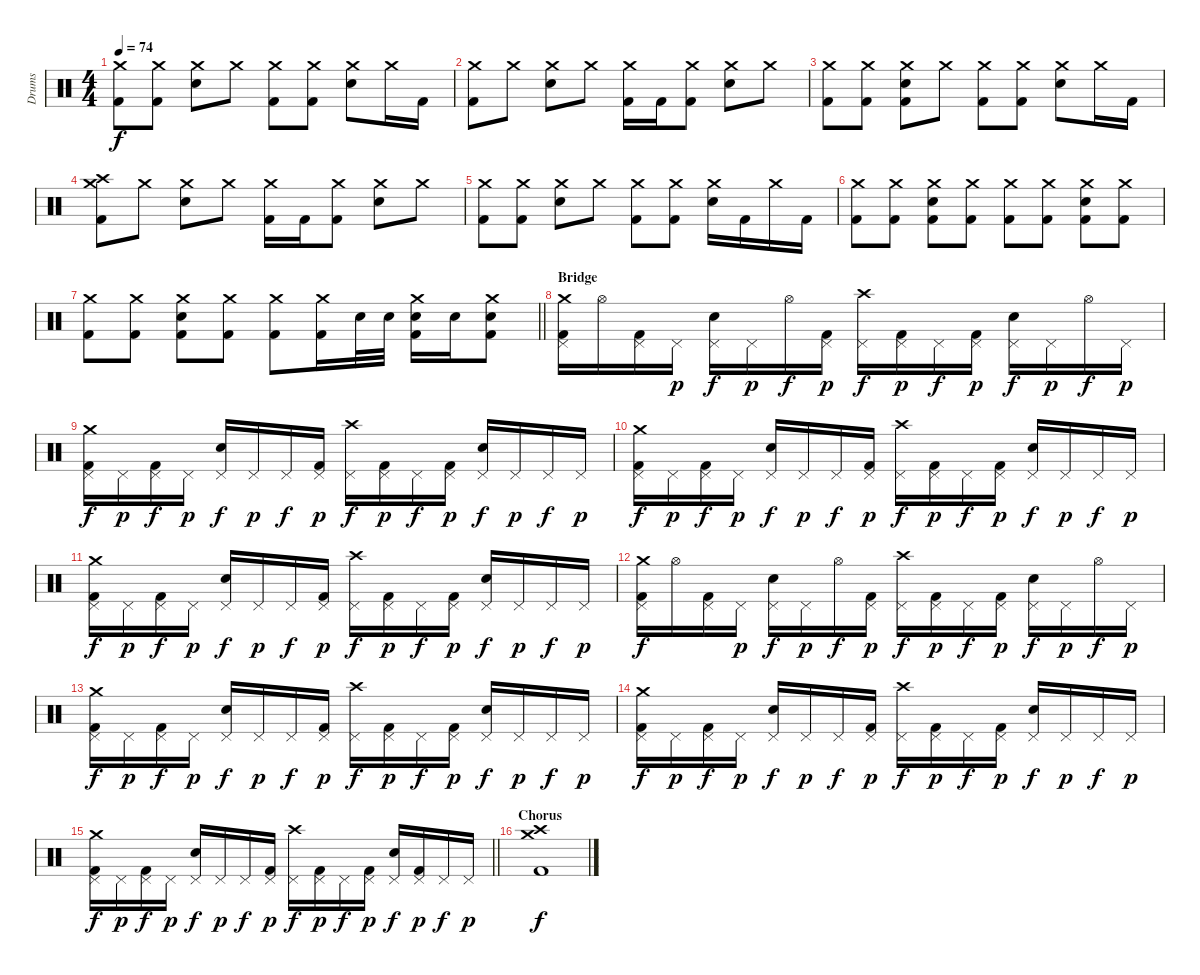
\track ("Drums" "Drums") {instrument percussion}
\staff {score}
\articulation defaults
\ts (4 4)
\tempo 74
\clef neutral
\ks c
("Crash medium (hit)" "Kick (hit) 2").8{dy f} ("Crash medium (hit)" "Kick (hit) 2").8 ("Crash medium (hit)" "Snare (hit) 2").8 "Crash medium (hit)".8 ("Crash medium (hit)" "Kick (hit) 2").8 ("Crash medium (hit)" "Kick (hit) 2").8 ("Crash medium (hit)" "Snare (hit) 2").8 "Crash medium (hit)".16 "Kick (hit) 2".16 |
("Crash medium (hit)" "Kick (hit) 2").8 "Crash medium (hit)".8 ("Crash medium (hit)" "Snare (hit) 2").8 "Crash medium (hit)".8 ("Crash medium (hit)" "Kick (hit) 2").16 "Kick (hit) 2".16 ("Crash medium (hit)" "Kick (hit) 2").8 ("Crash medium (hit)" "Snare (hit) 2").8 "Crash medium (hit)".8 |
("Crash medium (hit)" "Kick (hit) 2").8 ("Crash medium (hit)" "Kick (hit) 2").8 ("Crash medium (hit)" "Snare (hit) 2" "Kick (hit) 2").8 "Crash medium (hit)".8 ("Crash medium (hit)" "Kick (hit) 2").8 ("Crash medium (hit)" "Kick (hit) 2").8 ("Crash medium (hit)" "Snare (hit) 2").8 "Crash medium (hit)".16 "Kick (hit) 2".16 |
("Crash high (hit)" "Crash medium (hit)" "Kick (hit) 2").8 "Crash medium (hit)".8 ("Crash medium (hit)" "Snare (hit) 2").8 "Crash medium (hit)".8 ("Crash medium (hit)" "Kick (hit) 2").16 "Kick (hit) 2".16 ("Crash medium (hit)" "Kick (hit) 2").8 ("Crash medium (hit)" "Snare (hit) 2").8 "Crash medium (hit)".8 |
("Crash medium (hit)" "Kick (hit) 2").8 ("Crash medium (hit)" "Kick (hit) 2").8 ("Crash medium (hit)" "Snare (hit) 2").8 "Crash medium (hit)".8 ("Crash medium (hit)" "Kick (hit) 2").8 ("Crash medium (hit)" "Kick (hit) 2").8 ("Crash medium (hit)" "Snare (hit) 2").16 "Kick (hit) 2".16 "Crash medium (hit)".16 "Kick (hit) 2".16 |
("Crash medium (hit)" "Kick (hit) 2").8 ("Crash medium (hit)" "Kick (hit) 2").8 ("Crash medium (hit)" "Snare (hit) 2" "Kick (hit) 2").8 ("Crash medium (hit)" "Kick (hit) 2").8 ("Crash medium (hit)" "Kick (hit) 2").8 ("Crash medium (hit)" "Kick (hit) 2").8 ("Crash medium (hit)" "Snare (hit) 2" "Kick (hit) 2").8 ("Crash medium (hit)" "Kick (hit) 2").8 |
\barLineRight lightlight
("Crash medium (hit)" "Kick (hit) 2").8 ("Crash medium (hit)" "Kick (hit) 2").8 ("Crash medium (hit)" "Snare (hit) 2" "Kick (hit) 2").8 ("Crash medium (hit)" "Kick (hit) 2").8 ("Crash medium (hit)" "Kick (hit) 2").8 ("Crash medium (hit)" "Kick (hit) 2").16 "Snare (hit) 2".32 "Snare (hit) 2".32 ("Crash medium (hit)" "Snare (hit) 2" "Kick (hit) 2").16 "Snare (hit) 2".16 ("Crash medium (hit)" "Snare (hit) 2" "Kick (hit) 2").8 |
\section ("" "Bridge")
("Pedal Hi-Hat (hit)" "Crash medium (hit)" "Kick (hit) 2").16 "Hi-Hat (open)".16 ("Pedal Hi-Hat (hit)" "Kick (hit) 2").16 "Pedal Hi-Hat (hit)".16{dy p} ("Pedal Hi-Hat (hit)" "Snare (hit) 2").16{dy f} "Pedal Hi-Hat (hit)".16{dy p} "Hi-Hat (open)".16{dy f} ("Pedal Hi-Hat (hit)" "Kick (hit) 2").16{dy p} ("Pedal Hi-Hat (hit)" "Crash high (hit)").16{dy f} ("Pedal Hi-Hat (hit)" "Kick (hit) 2").16{dy p} "Pedal Hi-Hat (hit)".16{dy f} ("Pedal Hi-Hat (hit)" "Kick (hit) 2").16{dy p} ("Pedal Hi-Hat (hit)" "Snare (hit) 2").16{dy f} "Pedal Hi-Hat (hit)".16{dy p} "Hi-Hat (open)".16{dy f} "Pedal Hi-Hat (hit)".16{dy p} |
("Pedal Hi-Hat (hit)" "Crash medium (hit)" "Kick (hit) 2").16{dy f} "Pedal Hi-Hat (hit)".16{dy p} ("Pedal Hi-Hat (hit)" "Kick (hit) 2").16{dy f} "Pedal Hi-Hat (hit)".16{dy p} ("Pedal Hi-Hat (hit)" "Snare (hit) 2").16{dy f} "Pedal Hi-Hat (hit)".16{dy p} "Pedal Hi-Hat (hit)".16{dy f} ("Pedal Hi-Hat (hit)" "Kick (hit) 2").16{dy p} ("Pedal Hi-Hat (hit)" "Crash high (hit)").16{dy f} ("Pedal Hi-Hat (hit)" "Kick (hit) 2").16{dy p} "Pedal Hi-Hat (hit)".16{dy f} ("Pedal Hi-Hat (hit)" "Kick (hit) 2").16{dy p} ("Pedal Hi-Hat (hit)" "Snare (hit) 2").16{dy f} "Pedal Hi-Hat (hit)".16{dy p} "Pedal Hi-Hat (hit)".16{dy f} "Pedal Hi-Hat (hit)".16{dy p} |
("Pedal Hi-Hat (hit)" "Crash medium (hit)" "Kick (hit) 2").16{dy f} "Pedal Hi-Hat (hit)".16{dy p} ("Pedal Hi-Hat (hit)" "Kick (hit) 2").16{dy f} "Pedal Hi-Hat (hit)".16{dy p} ("Pedal Hi-Hat (hit)" "Snare (hit) 2").16{dy f} "Pedal Hi-Hat (hit)".16{dy p} "Pedal Hi-Hat (hit)".16{dy f} ("Pedal Hi-Hat (hit)" "Kick (hit) 2").16{dy p} ("Pedal Hi-Hat (hit)" "Crash high (hit)").16{dy f} ("Pedal Hi-Hat (hit)" "Kick (hit) 2").16{dy p} "Pedal Hi-Hat (hit)".16{dy f} ("Pedal Hi-Hat (hit)" "Kick (hit) 2").16{dy p} ("Pedal Hi-Hat (hit)" "Snare (hit) 2").16{dy f} "Pedal Hi-Hat (hit)".16{dy p} "Pedal Hi-Hat (hit)".16{dy f} "Pedal Hi-Hat (hit)".16{dy p} |
("Pedal Hi-Hat (hit)" "Crash medium (hit)" "Kick (hit) 2").16{dy f} "Pedal Hi-Hat (hit)".16{dy p} ("Pedal Hi-Hat (hit)" "Kick (hit) 2").16{dy f} "Pedal Hi-Hat (hit)".16{dy p} ("Pedal Hi-Hat (hit)" "Snare (hit) 2").16{dy f} "Pedal Hi-Hat (hit)".16{dy p} "Pedal Hi-Hat (hit)".16{dy f} ("Pedal Hi-Hat (hit)" "Kick (hit) 2").16{dy p} ("Pedal Hi-Hat (hit)" "Crash high (hit)").16{dy f} ("Pedal Hi-Hat (hit)" "Kick (hit) 2").16{dy p} "Pedal Hi-Hat (hit)".16{dy f} ("Pedal Hi-Hat (hit)" "Kick (hit) 2").16{dy p} ("Pedal Hi-Hat (hit)" "Snare (hit) 2").16{dy f} "Pedal Hi-Hat (hit)".16{dy p} "Pedal Hi-Hat (hit)".16{dy f} "Pedal Hi-Hat (hit)".16{dy p} |
("Pedal Hi-Hat (hit)" "Crash medium (hit)" "Kick (hit) 2").16{dy f} "Hi-Hat (open)".16 ("Pedal Hi-Hat (hit)" "Kick (hit) 2").16 "Pedal Hi-Hat (hit)".16{dy p} ("Pedal Hi-Hat (hit)" "Snare (hit) 2").16{dy f} "Pedal Hi-Hat (hit)".16{dy p} "Hi-Hat (open)".16{dy f} ("Pedal Hi-Hat (hit)" "Kick (hit) 2").16{dy p} ("Pedal Hi-Hat (hit)" "Crash high (hit)").16{dy f} ("Pedal Hi-Hat (hit)" "Kick (hit) 2").16{dy p} "Pedal Hi-Hat (hit)".16{dy f} ("Pedal Hi-Hat (hit)" "Kick (hit) 2").16{dy p} ("Pedal Hi-Hat (hit)" "Snare (hit) 2").16{dy f} "Pedal Hi-Hat (hit)".16{dy p} "Hi-Hat (open)".16{dy f} "Pedal Hi-Hat (hit)".16{dy p} |
("Pedal Hi-Hat (hit)" "Crash medium (hit)" "Kick (hit) 2").16{dy f} "Pedal Hi-Hat (hit)".16{dy p} ("Pedal Hi-Hat (hit)" "Kick (hit) 2").16{dy f} "Pedal Hi-Hat (hit)".16{dy p} ("Pedal Hi-Hat (hit)" "Snare (hit) 2").16{dy f} "Pedal Hi-Hat (hit)".16{dy p} "Pedal Hi-Hat (hit)".16{dy f} ("Pedal Hi-Hat (hit)" "Kick (hit) 2").16{dy p} ("Pedal Hi-Hat (hit)" "Crash high (hit)").16{dy f} ("Pedal Hi-Hat (hit)" "Kick (hit) 2").16{dy p} "Pedal Hi-Hat (hit)".16{dy f} ("Pedal Hi-Hat (hit)" "Kick (hit) 2").16{dy p} ("Pedal Hi-Hat (hit)" "Snare (hit) 2").16{dy f} "Pedal Hi-Hat (hit)".16{dy p} "Pedal Hi-Hat (hit)".16{dy f} "Pedal Hi-Hat (hit)".16{dy p} |
("Pedal Hi-Hat (hit)" "Crash medium (hit)" "Kick (hit) 2").16{dy f} "Pedal Hi-Hat (hit)".16{dy p} ("Pedal Hi-Hat (hit)" "Kick (hit) 2").16{dy f} "Pedal Hi-Hat (hit)".16{dy p} ("Pedal Hi-Hat (hit)" "Snare (hit) 2").16{dy f} "Pedal Hi-Hat (hit)".16{dy p} "Pedal Hi-Hat (hit)".16{dy f} ("Pedal Hi-Hat (hit)" "Kick (hit) 2").16{dy p} ("Pedal Hi-Hat (hit)" "Crash high (hit)").16{dy f} ("Pedal Hi-Hat (hit)" "Kick (hit) 2").16{dy p} "Pedal Hi-Hat (hit)".16{dy f} ("Pedal Hi-Hat (hit)" "Kick (hit) 2").16{dy p} ("Pedal Hi-Hat (hit)" "Snare (hit) 2").16{dy f} "Pedal Hi-Hat (hit)".16{dy p} "Pedal Hi-Hat (hit)".16{dy f} "Pedal Hi-Hat (hit)".16{dy p} |
\barLineRight lightlight
("Pedal Hi-Hat (hit)" "Crash medium (hit)" "Kick (hit) 2").16{dy f} "Pedal Hi-Hat (hit)".16{dy p} ("Pedal Hi-Hat (hit)" "Kick (hit) 2").16{dy f} "Pedal Hi-Hat (hit)".16{dy p} ("Pedal Hi-Hat (hit)" "Snare (hit) 2").16{dy f} "Pedal Hi-Hat (hit)".16{dy p} "Pedal Hi-Hat (hit)".16{dy f} ("Pedal Hi-Hat (hit)" "Kick (hit) 2").16{dy p} ("Pedal Hi-Hat (hit)" "Crash high (hit)").16{dy f} ("Pedal Hi-Hat (hit)" "Kick (hit) 2").16{dy p} "Pedal Hi-Hat (hit)".16{dy f} ("Pedal Hi-Hat (hit)" "Kick (hit) 2").16{dy p} ("Pedal Hi-Hat (hit)" "Snare (hit) 2").16{dy f} ("Pedal Hi-Hat (hit)" "Kick (hit) 2").16{dy p} "Pedal Hi-Hat (hit)".16{dy f} "Pedal Hi-Hat (hit)".16{dy p} |
\section ("" "Chorus")
("Crash high (hit)" "Crash medium (hit)" "Kick (hit) 2").1{dy f}
